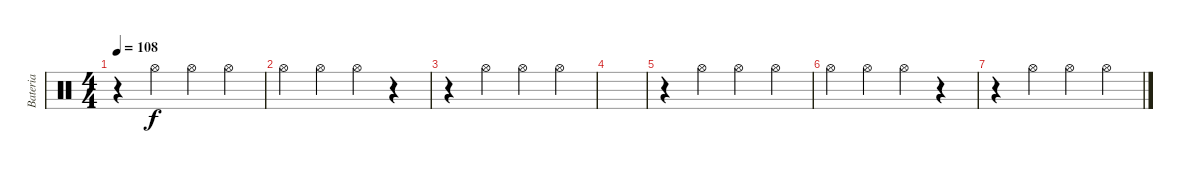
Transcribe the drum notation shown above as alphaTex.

\track ("Bateria" "Bateria") {instrument percussion}
\staff {score}
\articulation defaults
\ts (4 4)
\section ("" "")
\tempo 108
\clef neutral
\ks c
r.4{dy f} "Hi-Hat (open)".4 "Hi-Hat (open)".4 "Hi-Hat (open)".4 |
"Hi-Hat (open)".4 "Hi-Hat (open)".4 "Hi-Hat (open)".4 r.4 |
r.4 "Hi-Hat (open)".4 "Hi-Hat (open)".4 "Hi-Hat (open)".4 |
|
r.4 "Hi-Hat (open)".4 "Hi-Hat (open)".4 "Hi-Hat (open)".4 |
"Hi-Hat (open)".4 "Hi-Hat (open)".4 "Hi-Hat (open)".4 r.4 |
r.4 "Hi-Hat (open)".4 "Hi-Hat (open)".4 "Hi-Hat (open)".4
